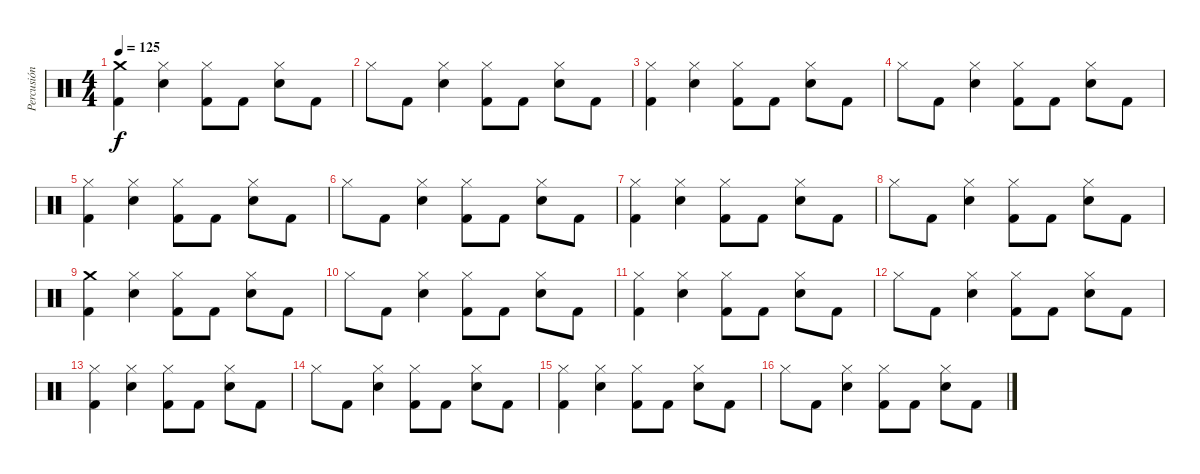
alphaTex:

\track ("Percusión" "Percusión") {instrument percussion}
\staff {score}
\articulation defaults
\ts (4 4)
\tempo 125
\clef neutral
\ks c
("Crash medium (hit)" "Kick (hit) 2").4{dy f} ("Snare (hit) 2" "Hi-Hat (closed)").4 ("Kick (hit) 2" "Hi-Hat (closed)").8 "Kick (hit) 2".8 ("Hi-Hat (closed)" "Snare (hit) 2").8 "Kick (hit) 2".8 |
"Hi-Hat (closed)".8 "Kick (hit) 2".8 ("Hi-Hat (closed)" "Snare (hit) 2").4 ("Hi-Hat (closed)" "Kick (hit) 2").8 "Kick (hit) 2".8 ("Hi-Hat (closed)" "Snare (hit) 2").8 "Kick (hit) 2".8 |
("Hi-Hat (closed)" "Kick (hit) 2").4 ("Snare (hit) 2" "Hi-Hat (closed)").4 ("Kick (hit) 2" "Hi-Hat (closed)").8 "Kick (hit) 2".8 ("Hi-Hat (closed)" "Snare (hit) 2").8 "Kick (hit) 2".8 |
"Hi-Hat (closed)".8 "Kick (hit) 2".8 ("Hi-Hat (closed)" "Snare (hit) 2").4 ("Hi-Hat (closed)" "Kick (hit) 2").8 "Kick (hit) 2".8 ("Hi-Hat (closed)" "Snare (hit) 2").8 "Kick (hit) 2".8 |
("Hi-Hat (closed)" "Kick (hit) 2").4 ("Snare (hit) 2" "Hi-Hat (closed)").4 ("Kick (hit) 2" "Hi-Hat (closed)").8 "Kick (hit) 2".8 ("Hi-Hat (closed)" "Snare (hit) 2").8 "Kick (hit) 2".8 |
"Hi-Hat (closed)".8 "Kick (hit) 2".8 ("Hi-Hat (closed)" "Snare (hit) 2").4 ("Hi-Hat (closed)" "Kick (hit) 2").8 "Kick (hit) 2".8 ("Hi-Hat (closed)" "Snare (hit) 2").8 "Kick (hit) 2".8 |
("Hi-Hat (closed)" "Kick (hit) 2").4 ("Snare (hit) 2" "Hi-Hat (closed)").4 ("Kick (hit) 2" "Hi-Hat (closed)").8 "Kick (hit) 2".8 ("Hi-Hat (closed)" "Snare (hit) 2").8 "Kick (hit) 2".8 |
"Hi-Hat (closed)".8 "Kick (hit) 2".8 ("Hi-Hat (closed)" "Snare (hit) 2").4 ("Hi-Hat (closed)" "Kick (hit) 2").8 "Kick (hit) 2".8 ("Hi-Hat (closed)" "Snare (hit) 2").8 "Kick (hit) 2".8 |
("Crash medium (hit)" "Kick (hit) 2").4{volume 0} ("Snare (hit) 2" "Hi-Hat (closed)").4 ("Kick (hit) 2" "Hi-Hat (closed)").8 "Kick (hit) 2".8 ("Hi-Hat (closed)" "Snare (hit) 2").8 "Kick (hit) 2".8 |
"Hi-Hat (closed)".8 "Kick (hit) 2".8 ("Hi-Hat (closed)" "Snare (hit) 2").4 ("Hi-Hat (closed)" "Kick (hit) 2").8 "Kick (hit) 2".8 ("Hi-Hat (closed)" "Snare (hit) 2").8 "Kick (hit) 2".8 |
("Hi-Hat (closed)" "Kick (hit) 2").4 ("Snare (hit) 2" "Hi-Hat (closed)").4 ("Kick (hit) 2" "Hi-Hat (closed)").8 "Kick (hit) 2".8 ("Hi-Hat (closed)" "Snare (hit) 2").8 "Kick (hit) 2".8 |
"Hi-Hat (closed)".8 "Kick (hit) 2".8 ("Hi-Hat (closed)" "Snare (hit) 2").4 ("Hi-Hat (closed)" "Kick (hit) 2").8 "Kick (hit) 2".8 ("Hi-Hat (closed)" "Snare (hit) 2").8 "Kick (hit) 2".8 |
("Hi-Hat (closed)" "Kick (hit) 2").4 ("Snare (hit) 2" "Hi-Hat (closed)").4 ("Kick (hit) 2" "Hi-Hat (closed)").8 "Kick (hit) 2".8 ("Hi-Hat (closed)" "Snare (hit) 2").8 "Kick (hit) 2".8 |
"Hi-Hat (closed)".8 "Kick (hit) 2".8 ("Hi-Hat (closed)" "Snare (hit) 2").4 ("Hi-Hat (closed)" "Kick (hit) 2").8 "Kick (hit) 2".8 ("Hi-Hat (closed)" "Snare (hit) 2").8 "Kick (hit) 2".8 |
("Hi-Hat (closed)" "Kick (hit) 2").4 ("Snare (hit) 2" "Hi-Hat (closed)").4 ("Kick (hit) 2" "Hi-Hat (closed)").8 "Kick (hit) 2".8 ("Hi-Hat (closed)" "Snare (hit) 2").8 "Kick (hit) 2".8 |
"Hi-Hat (closed)".8 "Kick (hit) 2".8 ("Hi-Hat (closed)" "Snare (hit) 2").4 ("Hi-Hat (closed)" "Kick (hit) 2").8 "Kick (hit) 2".8 ("Hi-Hat (closed)" "Snare (hit) 2").8 "Kick (hit) 2".8
